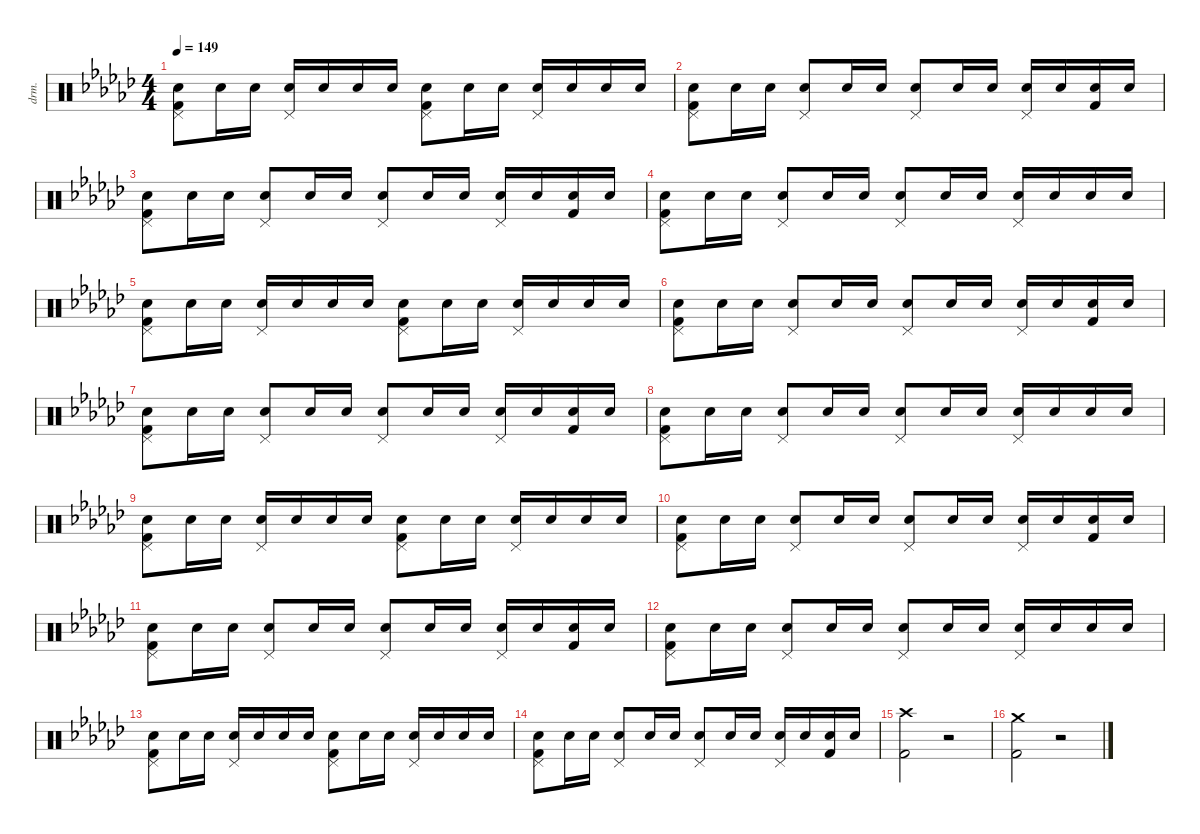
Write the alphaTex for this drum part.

\defaultSystemsLayout 4
\hideDynamics
\bracketExtendMode nobrackets
\otherSystemsTrackNameOrientation horizontal
\track ("Drums" "drm.") {defaultSystemsLayout 4 instrument percussion}
\staff {score}
\articulation defaults
\ts (4 4)
\tempo 149
\clef neutral
\ks gb
("Pedal Hi-Hat (hit)"{acc forcenatural} "Kick (hit) 2"{acc forcenatural} "Snare (hit) 2"{acc forcenatural}).8{dy f beam Down} "Snare (hit) 2"{acc forcenatural}.16{dy mf beam Down} "Snare (hit) 2"{acc forcenatural}.16{beam Down} ("Pedal Hi-Hat (hit)"{acc forcenatural} "Snare (hit) 2"{acc forcenatural}).16{dy f beam Up} "Snare (hit) 2"{acc forcenatural}.16{dy mf beam Up} "Snare (hit) 2"{acc forcenatural}.16{beam Up} "Snare (hit) 2"{acc forcenatural}.16{beam Up} ("Pedal Hi-Hat (hit)"{acc forcenatural} "Kick (hit) 2"{acc forcenatural} "Snare (hit) 2"{acc forcenatural}).8{dy f beam Down} "Snare (hit) 2"{acc forcenatural}.16{dy mf beam Down} "Snare (hit) 2"{acc forcenatural}.16{beam Down} ("Pedal Hi-Hat (hit)"{acc forcenatural} "Snare (hit) 2"{acc forcenatural}).16{dy f beam Up} "Snare (hit) 2"{acc forcenatural}.16{dy mf beam Up} "Snare (hit) 2"{acc forcenatural}.16{beam Up} "Snare (hit) 2"{acc forcenatural}.16{beam Up} |
("Pedal Hi-Hat (hit)"{acc forcenatural} "Kick (hit) 2"{acc forcenatural} "Snare (hit) 2"{acc forcenatural}).8{dy f beam Down} "Snare (hit) 2"{acc forcenatural}.16{dy mf beam Down} "Snare (hit) 2"{acc forcenatural}.16{beam Down} ("Pedal Hi-Hat (hit)"{acc forcenatural} "Snare (hit) 2"{acc forcenatural}).8{dy f beam Up} "Snare (hit) 2"{acc forcenatural}.16{dy mf beam Up} "Snare (hit) 2"{acc forcenatural}.16{beam Up} ("Pedal Hi-Hat (hit)"{acc forcenatural} "Snare (hit) 2"{acc forcenatural}).8{dy f beam Up} "Snare (hit) 2"{acc forcenatural}.16{dy mf beam Up} "Snare (hit) 2"{acc forcenatural}.16{beam Up} ("Pedal Hi-Hat (hit)"{acc forcenatural} "Snare (hit) 2"{acc forcenatural}).16{dy f beam Up} "Snare (hit) 2"{acc forcenatural}.16{dy mf beam Up} ("Kick (hit) 2"{acc forcenatural} "Snare (hit) 2"{acc forcenatural}).16{dy f beam Up} "Snare (hit) 2"{acc forcenatural}.16{dy mf beam Up} |
("Pedal Hi-Hat (hit)"{acc forcenatural} "Kick (hit) 2"{acc forcenatural} "Snare (hit) 2"{acc forcenatural}).8{dy f beam Down} "Snare (hit) 2"{acc forcenatural}.16{dy mf beam Down} "Snare (hit) 2"{acc forcenatural}.16{beam Down} ("Pedal Hi-Hat (hit)"{acc forcenatural} "Snare (hit) 2"{acc forcenatural}).8{dy f beam Up} "Snare (hit) 2"{acc forcenatural}.16{dy mf beam Up} "Snare (hit) 2"{acc forcenatural}.16{beam Up} ("Pedal Hi-Hat (hit)"{acc forcenatural} "Snare (hit) 2"{acc forcenatural}).8{dy f beam Up} "Snare (hit) 2"{acc forcenatural}.16{dy mf beam Up} "Snare (hit) 2"{acc forcenatural}.16{beam Up} ("Pedal Hi-Hat (hit)"{acc forcenatural} "Snare (hit) 2"{acc forcenatural}).16{dy f beam Up} "Snare (hit) 2"{acc forcenatural}.16{dy mf beam Up} ("Kick (hit) 2"{acc forcenatural} "Snare (hit) 2"{acc forcenatural}).16{dy f beam Up} "Snare (hit) 2"{acc forcenatural}.16{dy mf beam Up} |
("Pedal Hi-Hat (hit)"{acc forcenatural} "Kick (hit) 2"{acc forcenatural} "Snare (hit) 2"{acc forcenatural}).8{dy f beam Down} "Snare (hit) 2"{acc forcenatural}.16{dy mf beam Down} "Snare (hit) 2"{acc forcenatural}.16{beam Down} ("Pedal Hi-Hat (hit)"{acc forcenatural} "Snare (hit) 2"{acc forcenatural}).8{dy f beam Up} "Snare (hit) 2"{acc forcenatural}.16{dy mf beam Up} "Snare (hit) 2"{acc forcenatural}.16{beam Up} ("Pedal Hi-Hat (hit)"{acc forcenatural} "Snare (hit) 2"{acc forcenatural}).8{dy f beam Up} "Snare (hit) 2"{acc forcenatural}.16{dy mf beam Up} "Snare (hit) 2"{acc forcenatural}.16{beam Up} ("Pedal Hi-Hat (hit)"{acc forcenatural} "Snare (hit) 2"{acc forcenatural}).16{dy f beam Up} "Snare (hit) 2"{acc forcenatural}.16{dy mf beam Up} "Snare (hit) 2"{acc forcenatural}.16{beam Up} "Snare (hit) 2"{acc forcenatural}.16{beam Up} |
("Pedal Hi-Hat (hit)"{acc forcenatural} "Kick (hit) 2"{acc forcenatural} "Snare (hit) 2"{acc forcenatural}).8{dy f beam Down} "Snare (hit) 2"{acc forcenatural}.16{dy mf beam Down} "Snare (hit) 2"{acc forcenatural}.16{beam Down} ("Pedal Hi-Hat (hit)"{acc forcenatural} "Snare (hit) 2"{acc forcenatural}).16{dy f beam Up} "Snare (hit) 2"{acc forcenatural}.16{dy mf beam Up} "Snare (hit) 2"{acc forcenatural}.16{beam Up} "Snare (hit) 2"{acc forcenatural}.16{beam Up} ("Pedal Hi-Hat (hit)"{acc forcenatural} "Kick (hit) 2"{acc forcenatural} "Snare (hit) 2"{acc forcenatural}).8{dy f beam Down} "Snare (hit) 2"{acc forcenatural}.16{dy mf beam Down} "Snare (hit) 2"{acc forcenatural}.16{beam Down} ("Pedal Hi-Hat (hit)"{acc forcenatural} "Snare (hit) 2"{acc forcenatural}).16{dy f beam Up} "Snare (hit) 2"{acc forcenatural}.16{dy mf beam Up} "Snare (hit) 2"{acc forcenatural}.16{beam Up} "Snare (hit) 2"{acc forcenatural}.16{beam Up} |
("Pedal Hi-Hat (hit)"{acc forcenatural} "Kick (hit) 2"{acc forcenatural} "Snare (hit) 2"{acc forcenatural}).8{dy f beam Down} "Snare (hit) 2"{acc forcenatural}.16{dy mf beam Down} "Snare (hit) 2"{acc forcenatural}.16{beam Down} ("Pedal Hi-Hat (hit)"{acc forcenatural} "Snare (hit) 2"{acc forcenatural}).8{dy f beam Up} "Snare (hit) 2"{acc forcenatural}.16{dy mf beam Up} "Snare (hit) 2"{acc forcenatural}.16{beam Up} ("Pedal Hi-Hat (hit)"{acc forcenatural} "Snare (hit) 2"{acc forcenatural}).8{dy f beam Up} "Snare (hit) 2"{acc forcenatural}.16{dy mf beam Up} "Snare (hit) 2"{acc forcenatural}.16{beam Up} ("Pedal Hi-Hat (hit)"{acc forcenatural} "Snare (hit) 2"{acc forcenatural}).16{dy f beam Up} "Snare (hit) 2"{acc forcenatural}.16{dy mf beam Up} ("Kick (hit) 2"{acc forcenatural} "Snare (hit) 2"{acc forcenatural}).16{dy f beam Up} "Snare (hit) 2"{acc forcenatural}.16{dy mf beam Up} |
("Pedal Hi-Hat (hit)"{acc forcenatural} "Kick (hit) 2"{acc forcenatural} "Snare (hit) 2"{acc forcenatural}).8{dy f beam Down} "Snare (hit) 2"{acc forcenatural}.16{dy mf beam Down} "Snare (hit) 2"{acc forcenatural}.16{beam Down} ("Pedal Hi-Hat (hit)"{acc forcenatural} "Snare (hit) 2"{acc forcenatural}).8{dy f beam Up} "Snare (hit) 2"{acc forcenatural}.16{dy mf beam Up} "Snare (hit) 2"{acc forcenatural}.16{beam Up} ("Pedal Hi-Hat (hit)"{acc forcenatural} "Snare (hit) 2"{acc forcenatural}).8{dy f beam Up} "Snare (hit) 2"{acc forcenatural}.16{dy mf beam Up} "Snare (hit) 2"{acc forcenatural}.16{beam Up} ("Pedal Hi-Hat (hit)"{acc forcenatural} "Snare (hit) 2"{acc forcenatural}).16{dy f beam Up} "Snare (hit) 2"{acc forcenatural}.16{dy mf beam Up} ("Kick (hit) 2"{acc forcenatural} "Snare (hit) 2"{acc forcenatural}).16{dy f beam Up} "Snare (hit) 2"{acc forcenatural}.16{dy mf beam Up} |
("Pedal Hi-Hat (hit)"{acc forcenatural} "Kick (hit) 2"{acc forcenatural} "Snare (hit) 2"{acc forcenatural}).8{dy f beam Down} "Snare (hit) 2"{acc forcenatural}.16{dy mf beam Down} "Snare (hit) 2"{acc forcenatural}.16{beam Down} ("Pedal Hi-Hat (hit)"{acc forcenatural} "Snare (hit) 2"{acc forcenatural}).8{dy f beam Up} "Snare (hit) 2"{acc forcenatural}.16{dy mf beam Up} "Snare (hit) 2"{acc forcenatural}.16{beam Up} ("Pedal Hi-Hat (hit)"{acc forcenatural} "Snare (hit) 2"{acc forcenatural}).8{dy f beam Up} "Snare (hit) 2"{acc forcenatural}.16{dy mf beam Up} "Snare (hit) 2"{acc forcenatural}.16{beam Up} ("Pedal Hi-Hat (hit)"{acc forcenatural} "Snare (hit) 2"{acc forcenatural}).16{dy f beam Up} "Snare (hit) 2"{acc forcenatural}.16{dy mf beam Up} "Snare (hit) 2"{acc forcenatural}.16{beam Up} "Snare (hit) 2"{acc forcenatural}.16{beam Up} |
("Pedal Hi-Hat (hit)"{acc forcenatural} "Kick (hit) 2"{acc forcenatural} "Snare (hit) 2"{acc forcenatural}).8{dy f beam Down} "Snare (hit) 2"{acc forcenatural}.16{dy mf beam Down} "Snare (hit) 2"{acc forcenatural}.16{beam Down} ("Pedal Hi-Hat (hit)"{acc forcenatural} "Snare (hit) 2"{acc forcenatural}).16{dy f beam Up} "Snare (hit) 2"{acc forcenatural}.16{dy mf beam Up} "Snare (hit) 2"{acc forcenatural}.16{beam Up} "Snare (hit) 2"{acc forcenatural}.16{beam Up} ("Pedal Hi-Hat (hit)"{acc forcenatural} "Kick (hit) 2"{acc forcenatural} "Snare (hit) 2"{acc forcenatural}).8{dy f beam Down} "Snare (hit) 2"{acc forcenatural}.16{dy mf beam Down} "Snare (hit) 2"{acc forcenatural}.16{beam Down} ("Pedal Hi-Hat (hit)"{acc forcenatural} "Snare (hit) 2"{acc forcenatural}).16{dy f beam Up} "Snare (hit) 2"{acc forcenatural}.16{dy mf beam Up} "Snare (hit) 2"{acc forcenatural}.16{beam Up} "Snare (hit) 2"{acc forcenatural}.16{beam Up} |
("Pedal Hi-Hat (hit)"{acc forcenatural} "Kick (hit) 2"{acc forcenatural} "Snare (hit) 2"{acc forcenatural}).8{dy f beam Down} "Snare (hit) 2"{acc forcenatural}.16{dy mf beam Down} "Snare (hit) 2"{acc forcenatural}.16{beam Down} ("Pedal Hi-Hat (hit)"{acc forcenatural} "Snare (hit) 2"{acc forcenatural}).8{dy f beam Up} "Snare (hit) 2"{acc forcenatural}.16{dy mf beam Up} "Snare (hit) 2"{acc forcenatural}.16{beam Up} ("Pedal Hi-Hat (hit)"{acc forcenatural} "Snare (hit) 2"{acc forcenatural}).8{dy f beam Up} "Snare (hit) 2"{acc forcenatural}.16{dy mf beam Up} "Snare (hit) 2"{acc forcenatural}.16{beam Up} ("Pedal Hi-Hat (hit)"{acc forcenatural} "Snare (hit) 2"{acc forcenatural}).16{dy f beam Up} "Snare (hit) 2"{acc forcenatural}.16{dy mf beam Up} ("Kick (hit) 2"{acc forcenatural} "Snare (hit) 2"{acc forcenatural}).16{dy f beam Up} "Snare (hit) 2"{acc forcenatural}.16{dy mf beam Up} |
("Pedal Hi-Hat (hit)"{acc forcenatural} "Kick (hit) 2"{acc forcenatural} "Snare (hit) 2"{acc forcenatural}).8{dy f beam Down} "Snare (hit) 2"{acc forcenatural}.16{dy mf beam Down} "Snare (hit) 2"{acc forcenatural}.16{beam Down} ("Pedal Hi-Hat (hit)"{acc forcenatural} "Snare (hit) 2"{acc forcenatural}).8{dy f beam Up} "Snare (hit) 2"{acc forcenatural}.16{dy mf beam Up} "Snare (hit) 2"{acc forcenatural}.16{beam Up} ("Pedal Hi-Hat (hit)"{acc forcenatural} "Snare (hit) 2"{acc forcenatural}).8{dy f beam Up} "Snare (hit) 2"{acc forcenatural}.16{dy mf beam Up} "Snare (hit) 2"{acc forcenatural}.16{beam Up} ("Pedal Hi-Hat (hit)"{acc forcenatural} "Snare (hit) 2"{acc forcenatural}).16{dy f beam Up} "Snare (hit) 2"{acc forcenatural}.16{dy mf beam Up} ("Kick (hit) 2"{acc forcenatural} "Snare (hit) 2"{acc forcenatural}).16{dy f beam Up} "Snare (hit) 2"{acc forcenatural}.16{dy mf beam Up} |
("Pedal Hi-Hat (hit)"{acc forcenatural} "Kick (hit) 2"{acc forcenatural} "Snare (hit) 2"{acc forcenatural}).8{dy f beam Down} "Snare (hit) 2"{acc forcenatural}.16{dy mf beam Down} "Snare (hit) 2"{acc forcenatural}.16{beam Down} ("Pedal Hi-Hat (hit)"{acc forcenatural} "Snare (hit) 2"{acc forcenatural}).8{dy f beam Up} "Snare (hit) 2"{acc forcenatural}.16{dy mf beam Up} "Snare (hit) 2"{acc forcenatural}.16{beam Up} ("Pedal Hi-Hat (hit)"{acc forcenatural} "Snare (hit) 2"{acc forcenatural}).8{dy f beam Up} "Snare (hit) 2"{acc forcenatural}.16{dy mf beam Up} "Snare (hit) 2"{acc forcenatural}.16{beam Up} ("Pedal Hi-Hat (hit)"{acc forcenatural} "Snare (hit) 2"{acc forcenatural}).16{dy f beam Up} "Snare (hit) 2"{acc forcenatural}.16{dy mf beam Up} "Snare (hit) 2"{acc forcenatural}.16{beam Up} "Snare (hit) 2"{acc forcenatural}.16{beam Up} |
("Pedal Hi-Hat (hit)"{acc forcenatural} "Kick (hit) 2"{acc forcenatural} "Snare (hit) 2"{acc forcenatural}).8{dy f beam Down} "Snare (hit) 2"{acc forcenatural}.16{dy mf beam Down} "Snare (hit) 2"{acc forcenatural}.16{beam Down} ("Pedal Hi-Hat (hit)"{acc forcenatural} "Snare (hit) 2"{acc forcenatural}).16{dy f beam Up} "Snare (hit) 2"{acc forcenatural}.16{dy mf beam Up} "Snare (hit) 2"{acc forcenatural}.16{beam Up} "Snare (hit) 2"{acc forcenatural}.16{beam Up} ("Pedal Hi-Hat (hit)"{acc forcenatural} "Kick (hit) 2"{acc forcenatural} "Snare (hit) 2"{acc forcenatural}).8{dy f beam Down} "Snare (hit) 2"{acc forcenatural}.16{dy mf beam Down} "Snare (hit) 2"{acc forcenatural}.16{beam Down} ("Pedal Hi-Hat (hit)"{acc forcenatural} "Snare (hit) 2"{acc forcenatural}).16{dy f beam Up} "Snare (hit) 2"{acc forcenatural}.16{dy mf beam Up} "Snare (hit) 2"{acc forcenatural}.16{beam Up} "Snare (hit) 2"{acc forcenatural}.16{beam Up} |
("Pedal Hi-Hat (hit)"{acc forcenatural} "Kick (hit) 2"{acc forcenatural} "Snare (hit) 2"{acc forcenatural}).8{dy f beam Down} "Snare (hit) 2"{acc forcenatural}.16{dy mf beam Down} "Snare (hit) 2"{acc forcenatural}.16{beam Down} ("Pedal Hi-Hat (hit)"{acc forcenatural} "Snare (hit) 2"{acc forcenatural}).8{dy f beam Up} "Snare (hit) 2"{acc forcenatural}.16{dy mf beam Up} "Snare (hit) 2"{acc forcenatural}.16{beam Up} ("Pedal Hi-Hat (hit)"{acc forcenatural} "Snare (hit) 2"{acc forcenatural}).8{dy f beam Up} "Snare (hit) 2"{acc forcenatural}.16{dy mf beam Up} "Snare (hit) 2"{acc forcenatural}.16{beam Up} ("Pedal Hi-Hat (hit)"{acc forcenatural} "Snare (hit) 2"{acc forcenatural}).16{dy f beam Up} "Snare (hit) 2"{acc forcenatural}.16{dy mf beam Up} ("Kick (hit) 2"{acc forcenatural} "Snare (hit) 2"{acc forcenatural}).16{dy f beam Up} "Snare (hit) 2"{acc forcenatural}.16{dy mf beam Up} |
("Kick (hit) 2"{acc forcenatural} "Crash high (hit)"{acc forcenatural}).2{dy f beam Down} r.2{beam Down} |
("Kick (hit) 2"{acc forcenatural} "Crash medium (hit)"{acc forcenatural}).2{beam Down} r.2{beam Down}
